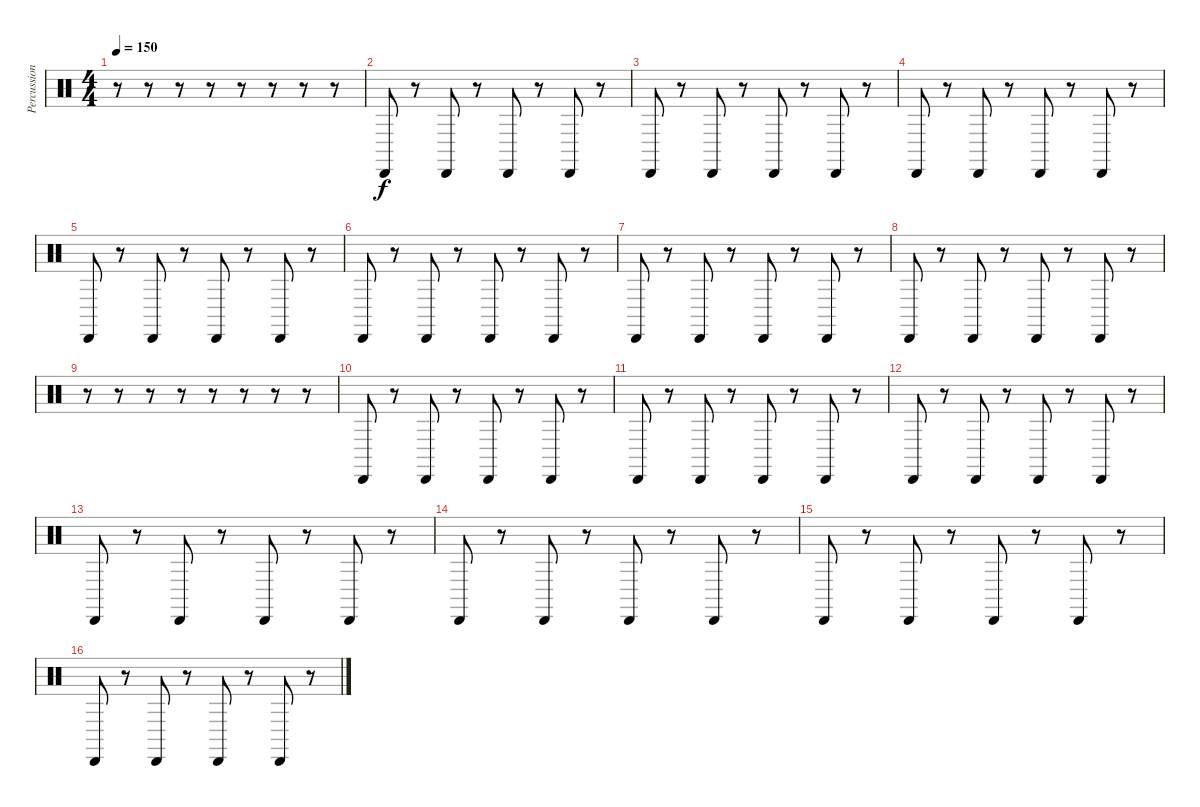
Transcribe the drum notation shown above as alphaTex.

\track ("Percussion1" "Percussion") {instrument percussion}
\staff {score}
\articulation defaults
\ts (4 4)
\tempo 150
\clef neutral
\ks aminor
r.8{dy f} r.8 r.8 r.8 r.8 r.8 r.8 r.8 |
"Cabasa (hit)".8 r.8 "Cabasa (hit)".8 r.8 "Cabasa (hit)".8 r.8 "Cabasa (hit)".8 r.8 |
"Cabasa (hit)".8 r.8 "Cabasa (hit)".8 r.8 "Cabasa (hit)".8 r.8 "Cabasa (hit)".8 r.8 |
"Cabasa (hit)".8 r.8 "Cabasa (hit)".8 r.8 "Cabasa (hit)".8 r.8 "Cabasa (hit)".8 r.8 |
"Cabasa (hit)".8 r.8 "Cabasa (hit)".8 r.8 "Cabasa (hit)".8 r.8 "Cabasa (hit)".8 r.8 |
"Cabasa (hit)".8 r.8 "Cabasa (hit)".8 r.8 "Cabasa (hit)".8 r.8 "Cabasa (hit)".8 r.8 |
"Cabasa (hit)".8 r.8 "Cabasa (hit)".8 r.8 "Cabasa (hit)".8 r.8 "Cabasa (hit)".8 r.8 |
"Cabasa (hit)".8 r.8 "Cabasa (hit)".8 r.8 "Cabasa (hit)".8 r.8 "Cabasa (hit)".8 r.8 |
r.8 r.8 r.8 r.8 r.8 r.8 r.8 r.8 |
"Cabasa (hit)".8 r.8 "Cabasa (hit)".8 r.8 "Cabasa (hit)".8 r.8 "Cabasa (hit)".8 r.8 |
"Cabasa (hit)".8 r.8 "Cabasa (hit)".8 r.8 "Cabasa (hit)".8 r.8 "Cabasa (hit)".8 r.8 |
"Cabasa (hit)".8 r.8 "Cabasa (hit)".8 r.8 "Cabasa (hit)".8 r.8 "Cabasa (hit)".8 r.8 |
"Cabasa (hit)".8 r.8 "Cabasa (hit)".8 r.8 "Cabasa (hit)".8 r.8 "Cabasa (hit)".8 r.8 |
"Cabasa (hit)".8 r.8 "Cabasa (hit)".8 r.8 "Cabasa (hit)".8 r.8 "Cabasa (hit)".8 r.8 |
"Cabasa (hit)".8 r.8 "Cabasa (hit)".8 r.8 "Cabasa (hit)".8 r.8 "Cabasa (hit)".8 r.8 |
"Cabasa (hit)".8 r.8 "Cabasa (hit)".8 r.8 "Cabasa (hit)".8 r.8 "Cabasa (hit)".8 r.8
